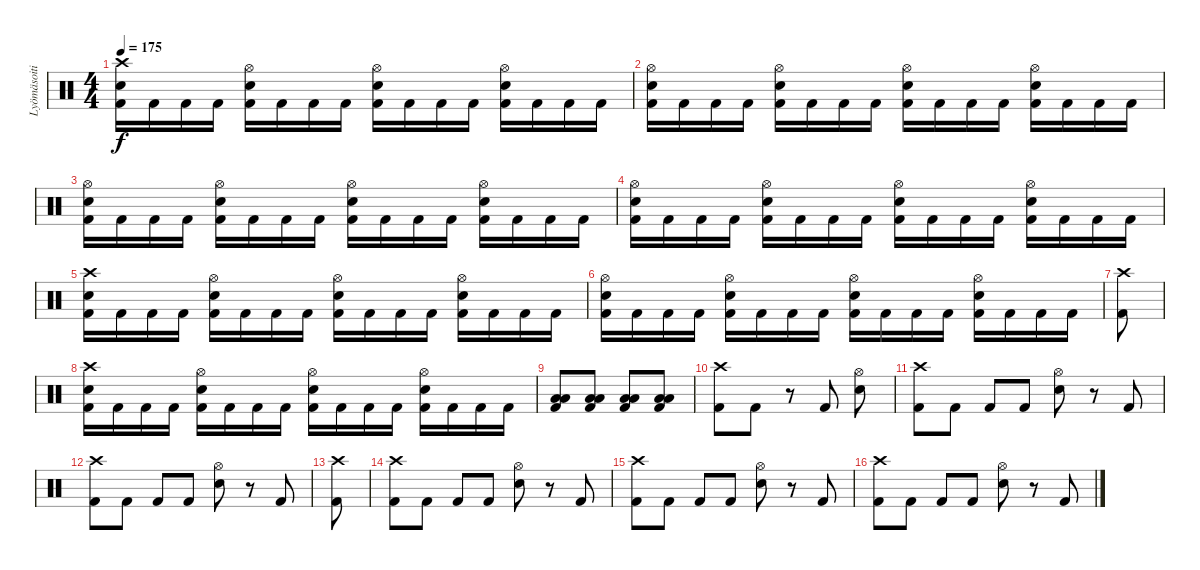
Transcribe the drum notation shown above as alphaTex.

\track ("Lyömäsoitin" "Lyömäsoiti") {instrument percussion}
\staff {score}
\articulation defaults
\ts (4 4)
\tempo 175
\clef neutral
\ks c
("Kick (hit) 2" "Electric Snare (hit)" "Crash high (hit)").16{dy f} "Kick (hit) 2".16 "Kick (hit) 2".16 "Kick (hit) 2".16 ("Kick (hit) 2" "Electric Snare (hit)" "Hi-Hat (open)").16 "Kick (hit) 2".16 "Kick (hit) 2".16 "Kick (hit) 2".16 ("Kick (hit) 2" "Electric Snare (hit)" "Hi-Hat (open)").16 "Kick (hit) 2".16 "Kick (hit) 2".16 "Kick (hit) 2".16 ("Kick (hit) 2" "Electric Snare (hit)" "Hi-Hat (open)").16 "Kick (hit) 2".16 "Kick (hit) 2".16 "Kick (hit) 2".16 |
("Kick (hit) 2" "Electric Snare (hit)" "Hi-Hat (open)").16 "Kick (hit) 2".16 "Kick (hit) 2".16 "Kick (hit) 2".16 ("Kick (hit) 2" "Electric Snare (hit)" "Hi-Hat (open)").16 "Kick (hit) 2".16 "Kick (hit) 2".16 "Kick (hit) 2".16 ("Kick (hit) 2" "Electric Snare (hit)" "Hi-Hat (open)").16 "Kick (hit) 2".16 "Kick (hit) 2".16 "Kick (hit) 2".16 ("Kick (hit) 2" "Electric Snare (hit)" "Hi-Hat (open)").16 "Kick (hit) 2".16 "Kick (hit) 2".16 "Kick (hit) 2".16 |
("Kick (hit) 2" "Electric Snare (hit)" "Hi-Hat (open)").16 "Kick (hit) 2".16 "Kick (hit) 2".16 "Kick (hit) 2".16 ("Kick (hit) 2" "Electric Snare (hit)" "Hi-Hat (open)").16 "Kick (hit) 2".16 "Kick (hit) 2".16 "Kick (hit) 2".16 ("Kick (hit) 2" "Electric Snare (hit)" "Hi-Hat (open)").16 "Kick (hit) 2".16 "Kick (hit) 2".16 "Kick (hit) 2".16 ("Kick (hit) 2" "Electric Snare (hit)" "Hi-Hat (open)").16 "Kick (hit) 2".16 "Kick (hit) 2".16 "Kick (hit) 2".16 |
("Kick (hit) 2" "Electric Snare (hit)" "Hi-Hat (open)").16 "Kick (hit) 2".16 "Kick (hit) 2".16 "Kick (hit) 2".16 ("Kick (hit) 2" "Electric Snare (hit)" "Hi-Hat (open)").16 "Kick (hit) 2".16 "Kick (hit) 2".16 "Kick (hit) 2".16 ("Kick (hit) 2" "Electric Snare (hit)" "Hi-Hat (open)").16 "Kick (hit) 2".16 "Kick (hit) 2".16 "Kick (hit) 2".16 ("Kick (hit) 2" "Electric Snare (hit)" "Hi-Hat (open)").16 "Kick (hit) 2".16 "Kick (hit) 2".16 "Kick (hit) 2".16 |
("Kick (hit) 2" "Electric Snare (hit)" "Crash high (hit)").16 "Kick (hit) 2".16 "Kick (hit) 2".16 "Kick (hit) 2".16 ("Kick (hit) 2" "Electric Snare (hit)" "Hi-Hat (open)").16 "Kick (hit) 2".16 "Kick (hit) 2".16 "Kick (hit) 2".16 ("Kick (hit) 2" "Electric Snare (hit)" "Hi-Hat (open)").16 "Kick (hit) 2".16 "Kick (hit) 2".16 "Kick (hit) 2".16 ("Kick (hit) 2" "Electric Snare (hit)" "Hi-Hat (open)").16 "Kick (hit) 2".16 "Kick (hit) 2".16 "Kick (hit) 2".16 |
("Kick (hit) 2" "Electric Snare (hit)" "Hi-Hat (open)").16 "Kick (hit) 2".16 "Kick (hit) 2".16 "Kick (hit) 2".16 ("Kick (hit) 2" "Electric Snare (hit)" "Hi-Hat (open)").16 "Kick (hit) 2".16 "Kick (hit) 2".16 "Kick (hit) 2".16 ("Kick (hit) 2" "Electric Snare (hit)" "Hi-Hat (open)").16 "Kick (hit) 2".16 "Kick (hit) 2".16 "Kick (hit) 2".16 ("Kick (hit) 2" "Electric Snare (hit)" "Hi-Hat (open)").16 "Kick (hit) 2".16 "Kick (hit) 2".16 "Kick (hit) 2".16 |
("Kick (hit) 2" "Crash high (hit)").8 |
("Kick (hit) 2" "Electric Snare (hit)" "Crash high (hit)").16 "Kick (hit) 2".16 "Kick (hit) 2".16 "Kick (hit) 2".16 ("Kick (hit) 2" "Electric Snare (hit)" "Hi-Hat (open)").16 "Kick (hit) 2".16 "Kick (hit) 2".16 "Kick (hit) 2".16 ("Kick (hit) 2" "Electric Snare (hit)" "Hi-Hat (open)").16 "Kick (hit) 2".16 "Kick (hit) 2".16 "Kick (hit) 2".16 ("Kick (hit) 2" "Electric Snare (hit)" "Hi-Hat (open)").16 "Kick (hit) 2".16 "Kick (hit) 2".16 "Kick (hit) 2".16 |
("Kick (hit) 2" "Low Tom (hit)" "Low Floor Tom (hit)").8 ("Kick (hit) 2" "Low Tom (hit)" "Low Floor Tom (hit)").8 ("Kick (hit) 2" "Low Tom (hit)" "Low Floor Tom (hit)").8 ("Kick (hit) 2" "Low Tom (hit)" "Low Floor Tom (hit)").8 |
("Kick (hit) 2" "Crash high (hit)").8 "Kick (hit) 2".8 r.8 "Kick (hit) 2".8 ("Electric Snare (hit)" "Hi-Hat (open)").8 |
("Kick (hit) 2" "Crash high (hit)").8 "Kick (hit) 2".8 "Kick (hit) 2".8 "Kick (hit) 2".8 ("Electric Snare (hit)" "Hi-Hat (open)").8 r.8 "Kick (hit) 2".8 |
("Kick (hit) 2" "Crash high (hit)").8 "Kick (hit) 2".8 "Kick (hit) 2".8 "Kick (hit) 2".8 ("Electric Snare (hit)" "Hi-Hat (open)").8 r.8 "Kick (hit) 2".8 |
("Kick (hit) 2" "Crash high (hit)").8 |
("Kick (hit) 2" "Crash high (hit)").8 "Kick (hit) 2".8 "Kick (hit) 2".8 "Kick (hit) 2".8 ("Electric Snare (hit)" "Hi-Hat (open)").8 r.8 "Kick (hit) 2".8 |
("Kick (hit) 2" "Crash high (hit)").8 "Kick (hit) 2".8 "Kick (hit) 2".8 "Kick (hit) 2".8 ("Electric Snare (hit)" "Hi-Hat (open)").8 r.8 "Kick (hit) 2".8 |
("Kick (hit) 2" "Crash high (hit)").8 "Kick (hit) 2".8 "Kick (hit) 2".8 "Kick (hit) 2".8 ("Electric Snare (hit)" "Hi-Hat (open)").8 r.8 "Kick (hit) 2".8
